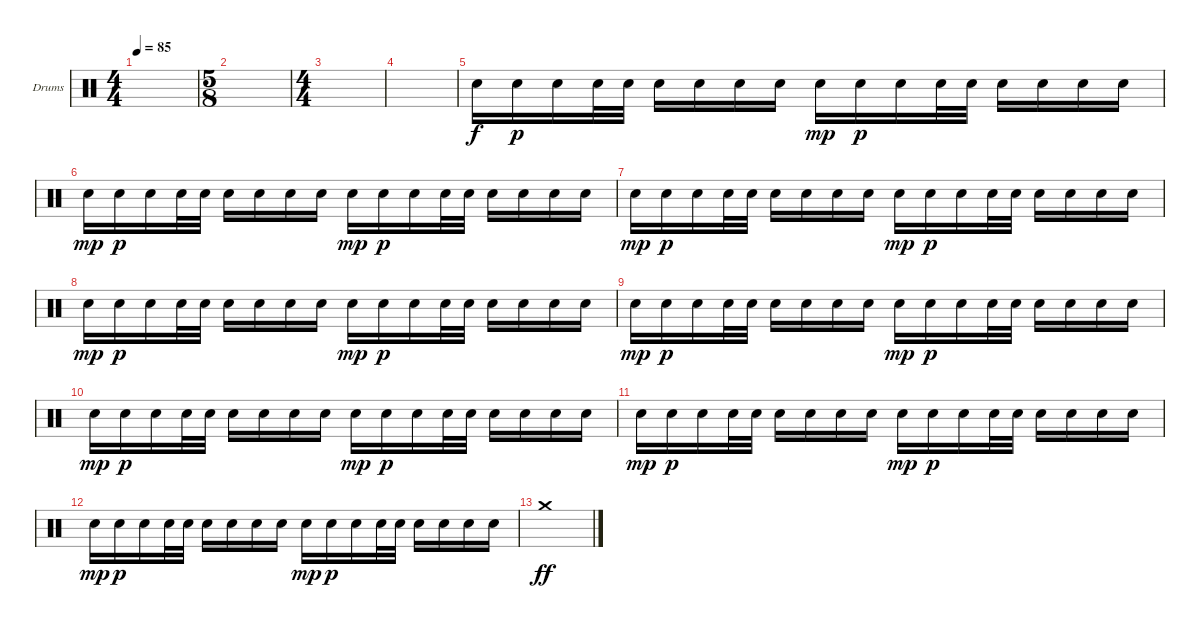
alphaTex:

\defaultSystemsLayout 4
\bracketExtendMode groupsimilarinstruments
\firstSystemTrackNameOrientation horizontal
\otherSystemsTrackNameOrientation horizontal
\track ("Drumkit" "Drums") {instrument percussion}
\staff {score}
\articulation defaults
\ts (4 4)
\tempo 85
\clef neutral
\scale
0.333333
\ks c
|
\ts (5 8)
\scale
0.333333 |
\ts (4 4)
\scale
0.333333 |
\scale
0.329412 |
\scale
0.341176 "Snare (hit) 2".16 "Snare (hit) 2".16{dy p} "Snare (hit) 2".16 "Snare (hit) 2".32 "Snare (hit) 2".32 "Snare (hit) 2".16 "Snare (hit) 2".16 "Snare (hit) 2".16 "Snare (hit) 2".16 "Snare (hit) 2".16{dy mp} "Snare (hit) 2".16{dy p} "Snare (hit) 2".16 "Snare (hit) 2".32 "Snare (hit) 2".32 "Snare (hit) 2".16 "Snare (hit) 2".16 "Snare (hit) 2".16 "Snare (hit) 2".16 |
\scale
0.329412 "Snare (hit) 2".16{dy mp} "Snare (hit) 2".16{dy p} "Snare (hit) 2".16 "Snare (hit) 2".32 "Snare (hit) 2".32 "Snare (hit) 2".16 "Snare (hit) 2".16 "Snare (hit) 2".16 "Snare (hit) 2".16 "Snare (hit) 2".16{dy mp} "Snare (hit) 2".16{dy p} "Snare (hit) 2".16 "Snare (hit) 2".32 "Snare (hit) 2".32 "Snare (hit) 2".16 "Snare (hit) 2".16 "Snare (hit) 2".16 "Snare (hit) 2".16 |
\scale
0.333333 "Snare (hit) 2".16{dy mp} "Snare (hit) 2".16{dy p} "Snare (hit) 2".16 "Snare (hit) 2".32 "Snare (hit) 2".32 "Snare (hit) 2".16 "Snare (hit) 2".16 "Snare (hit) 2".16 "Snare (hit) 2".16 "Snare (hit) 2".16{dy mp} "Snare (hit) 2".16{dy p} "Snare (hit) 2".16 "Snare (hit) 2".32 "Snare (hit) 2".32 "Snare (hit) 2".16 "Snare (hit) 2".16 "Snare (hit) 2".16 "Snare (hit) 2".16 |
\scale
0.333333 "Snare (hit) 2".16{dy mp} "Snare (hit) 2".16{dy p} "Snare (hit) 2".16 "Snare (hit) 2".32 "Snare (hit) 2".32 "Snare (hit) 2".16 "Snare (hit) 2".16 "Snare (hit) 2".16 "Snare (hit) 2".16 "Snare (hit) 2".16{dy mp} "Snare (hit) 2".16{dy p} "Snare (hit) 2".16 "Snare (hit) 2".32 "Snare (hit) 2".32 "Snare (hit) 2".16 "Snare (hit) 2".16 "Snare (hit) 2".16 "Snare (hit) 2".16 |
\scale
0.333333 "Snare (hit) 2".16{dy mp} "Snare (hit) 2".16{dy p} "Snare (hit) 2".16 "Snare (hit) 2".32 "Snare (hit) 2".32 "Snare (hit) 2".16 "Snare (hit) 2".16 "Snare (hit) 2".16 "Snare (hit) 2".16 "Snare (hit) 2".16{dy mp} "Snare (hit) 2".16{dy p} "Snare (hit) 2".16 "Snare (hit) 2".32 "Snare (hit) 2".32 "Snare (hit) 2".16 "Snare (hit) 2".16 "Snare (hit) 2".16 "Snare (hit) 2".16 |
\scale
0.333333 "Snare (hit) 2".16{dy mp} "Snare (hit) 2".16{dy p} "Snare (hit) 2".16 "Snare (hit) 2".32 "Snare (hit) 2".32 "Snare (hit) 2".16 "Snare (hit) 2".16 "Snare (hit) 2".16 "Snare (hit) 2".16 "Snare (hit) 2".16{dy mp} "Snare (hit) 2".16{dy p} "Snare (hit) 2".16 "Snare (hit) 2".32 "Snare (hit) 2".32 "Snare (hit) 2".16 "Snare (hit) 2".16 "Snare (hit) 2".16 "Snare (hit) 2".16 |
\scale
0.333333 "Snare (hit) 2".16{dy mp} "Snare (hit) 2".16{dy p} "Snare (hit) 2".16 "Snare (hit) 2".32 "Snare (hit) 2".32 "Snare (hit) 2".16 "Snare (hit) 2".16 "Snare (hit) 2".16 "Snare (hit) 2".16 "Snare (hit) 2".16{dy mp} "Snare (hit) 2".16{dy p} "Snare (hit) 2".16 "Snare (hit) 2".32 "Snare (hit) 2".32 "Snare (hit) 2".16 "Snare (hit) 2".16 "Snare (hit) 2".16 "Snare (hit) 2".16 |
\scale
0.333333 "Snare (hit) 2".16{dy mp} "Snare (hit) 2".16{dy p} "Snare (hit) 2".16 "Snare (hit) 2".32 "Snare (hit) 2".32 "Snare (hit) 2".16 "Snare (hit) 2".16 "Snare (hit) 2".16 "Snare (hit) 2".16 "Snare (hit) 2".16{dy mp} "Snare (hit) 2".16{dy p} "Snare (hit) 2".16 "Snare (hit) 2".32 "Snare (hit) 2".32 "Snare (hit) 2".16 "Snare (hit) 2".16 "Snare (hit) 2".16 "Snare (hit) 2".16 |
\scale
0.333333 "Crash medium (hit)".1{dy ff} |
\scale
0.333333 |
\scale
0.333333
